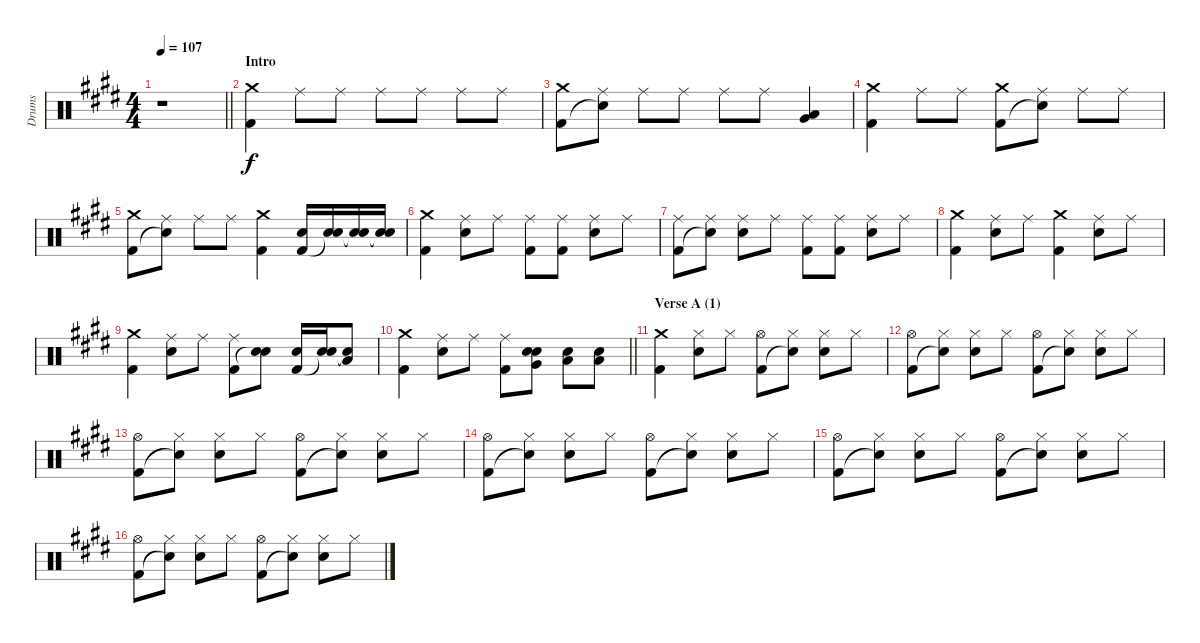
\track ("Drums" "Drums") {instrument percussion}
\staff {score}
\articulation defaults
\ts (4 4)
\tempo 107
\clef neutral
\barLineRight lightlight
\ks e
r.1{dy f} |
\section ("" "Intro")
("Crash medium (hit)" "Kick (hit) 2").4 "Ride (middle)".8 "Ride (middle)".8 "Ride (middle)".8 "Ride (middle)".8 "Ride (middle)".8 "Ride (middle)".8 |
("Crash medium (hit)" "Kick (hit) 2").8 ("Ride (middle)" "Snare (hit)"{t}).8 "Ride (middle)".8 "Ride (middle)".8 "Ride (middle)".8 "Ride (middle)".8 ("Very Low Tom (hit)" "Low Floor Tom (hit)").4 |
("Crash medium (hit)" "Kick (hit) 2").4 "Ride (middle)".8 "Ride (middle)".8 ("Crash medium (hit)" "Kick (hit) 2").8 ("Ride (middle)" "Snare (hit)"{t}).8 "Ride (middle)".8 "Ride (middle)".8 |
("Crash medium (hit)" "Kick (hit) 2").8 ("Ride (middle)" "Snare (hit)"{t}).8 "Ride (middle)".8 "Ride (middle)".8 ("Crash medium (hit)" "Kick (hit) 2").4 ("Electric Snare (hit)" "Kick (hit) 2").16 ("Electric Snare (hit)" "Snare (hit)"{t}).16 ("Electric Snare (hit)" "Snare (hit)"{t}).16 ("Electric Snare (hit)" "Snare (hit)"{t}).16 |
("Crash medium (hit)" "Kick (hit) 2").4 ("Ride (middle)" "Electric Snare (hit)").8 "Ride (middle)".8 ("Ride (middle)" "Kick (hit) 2").8 ("Ride (middle)" "Kick (hit) 2").8 ("Ride (middle)" "Electric Snare (hit)").8 "Ride (middle)".8 |
("Ride (middle)" "Kick (hit) 2").8 ("Ride (middle)" "Snare (hit)"{t}).8 ("Ride (middle)" "Electric Snare (hit)").8 "Ride (middle)".8 ("Ride (middle)" "Kick (hit) 2").8 ("Ride (middle)" "Kick (hit) 2").8 ("Ride (middle)" "Electric Snare (hit)").8 "Ride (middle)".8 |
("Crash medium (hit)" "Kick (hit) 2").4 ("Ride (middle)" "Electric Snare (hit)").8 "Ride (middle)".8 ("Crash medium (hit)" "Kick (hit) 2").4 ("Ride (middle)" "Electric Snare (hit)").8 "Ride (middle)".8 |
("Crash medium (hit)" "Kick (hit) 2").4 ("Ride (middle)" "Electric Snare (hit)").8 "Ride (middle)".8 ("Ride (middle)" "Kick (hit) 2").8 ("Electric Snare (hit)" "Snare (hit)"{t}).8 ("Electric Snare (hit)" "Kick (hit) 2").16 ("Electric Snare (hit)" "Snare (hit)"{t}).16 ("Low Tom (hit)" "Snare (hit)"{t}).8 |
\barLineRight lightlight
("Crash medium (hit)" "Kick (hit) 2").4 ("Ride (middle)" "Electric Snare (hit)").8 "Ride (middle)".8 ("Ride (middle)" "Kick (hit) 2").8 ("Electric Snare (hit)" "Very Low Tom (hit)" "Snare (hit)").8 ("Electric Snare (hit)" "Low Floor Tom (hit)").8 ("Electric Snare (hit)" "Low Floor Tom (hit)").8 |
\section ("" "Verse A (1)")
("Crash medium (hit)" "Kick (hit) 2").4 ("Hi-Hat (closed)" "Electric Snare (hit)").8 "Hi-Hat (closed)".8 ("Hi-Hat (open)" "Kick (hit) 2").8 ("Hi-Hat (closed)" "Snare (hit)"{t}).8 ("Hi-Hat (closed)" "Electric Snare (hit)").8 "Hi-Hat (closed)".8 |
("Hi-Hat (open)" "Kick (hit) 2").8 ("Hi-Hat (closed)" "Snare (hit)"{t}).8 ("Hi-Hat (closed)" "Electric Snare (hit)").8 "Hi-Hat (closed)".8 ("Hi-Hat (open)" "Kick (hit) 2").8 ("Hi-Hat (closed)" "Snare (hit)"{t}).8 ("Hi-Hat (closed)" "Electric Snare (hit)").8 "Hi-Hat (closed)".8 |
("Hi-Hat (open)" "Kick (hit) 2").8 ("Hi-Hat (closed)" "Snare (hit)"{t}).8 ("Hi-Hat (closed)" "Electric Snare (hit)").8 "Hi-Hat (closed)".8 ("Hi-Hat (open)" "Kick (hit) 2").8 ("Hi-Hat (closed)" "Snare (hit)"{t}).8 ("Hi-Hat (closed)" "Electric Snare (hit)").8 "Hi-Hat (closed)".8 |
("Hi-Hat (open)" "Kick (hit) 2").8 ("Hi-Hat (closed)" "Snare (hit)"{t}).8 ("Hi-Hat (closed)" "Electric Snare (hit)").8 "Hi-Hat (closed)".8 ("Hi-Hat (open)" "Kick (hit) 2").8 ("Hi-Hat (closed)" "Snare (hit)"{t}).8 ("Hi-Hat (closed)" "Electric Snare (hit)").8 "Hi-Hat (closed)".8 |
("Hi-Hat (open)" "Kick (hit) 2").8 ("Hi-Hat (closed)" "Snare (hit)"{t}).8 ("Hi-Hat (closed)" "Electric Snare (hit)").8 "Hi-Hat (closed)".8 ("Hi-Hat (open)" "Kick (hit) 2").8 ("Hi-Hat (closed)" "Snare (hit)"{t}).8 ("Hi-Hat (closed)" "Electric Snare (hit)").8 "Hi-Hat (closed)".8 |
("Hi-Hat (open)" "Kick (hit) 2").8 ("Hi-Hat (closed)" "Snare (hit)"{t}).8 ("Hi-Hat (closed)" "Electric Snare (hit)").8 "Hi-Hat (closed)".8 ("Hi-Hat (open)" "Kick (hit) 2").8 ("Hi-Hat (closed)" "Snare (hit)"{t}).8 ("Hi-Hat (closed)" "Electric Snare (hit)").8 "Hi-Hat (closed)".8
